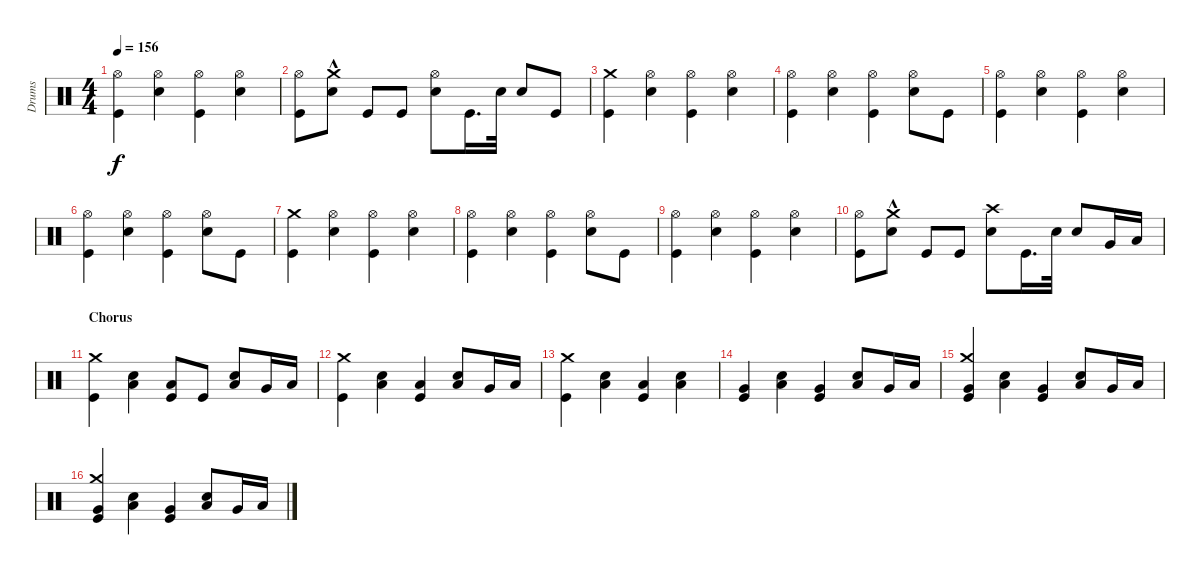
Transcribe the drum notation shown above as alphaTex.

\track ("Drums" "Drums") {instrument percussion}
\staff {score}
\articulation defaults
\ts (4 4)
\tempo 156
\clef neutral
\ks c
("Kick (hit)" "Hi-Hat (open)").4{dy f} ("Electric Snare (hit)" "Hi-Hat (open)").4 ("Kick (hit)" "Hi-Hat (open)").4 ("Electric Snare (hit)" "Hi-Hat (open)").4 |
("Kick (hit)" "Hi-Hat (open)").8 ("Electric Snare (hit)" "Crash medium (hit)"{hac}).8 "Kick (hit)".8 "Kick (hit)".8 ("Hi-Hat (open)" "Electric Snare (hit)").8 "Kick (hit)".16{d} "Electric Snare (hit)".32 "Electric Snare (hit)".8 "Kick (hit)".8 |
("Kick (hit)" "Crash medium (hit)").4 ("Hi-Hat (open)" "Electric Snare (hit)").4 ("Hi-Hat (open)" "Kick (hit)").4 ("Hi-Hat (open)" "Electric Snare (hit)").4 |
("Kick (hit)" "Hi-Hat (open)").4 ("Electric Snare (hit)" "Hi-Hat (open)").4 ("Kick (hit)" "Hi-Hat (open)").4 ("Electric Snare (hit)" "Hi-Hat (open)").8 "Kick (hit)".8 |
("Kick (hit)" "Hi-Hat (open)").4 ("Electric Snare (hit)" "Hi-Hat (open)").4 ("Kick (hit)" "Hi-Hat (open)").4 ("Electric Snare (hit)" "Hi-Hat (open)").4 |
("Kick (hit)" "Hi-Hat (open)").4 ("Electric Snare (hit)" "Hi-Hat (open)").4 ("Kick (hit)" "Hi-Hat (open)").4 ("Electric Snare (hit)" "Hi-Hat (open)").8 "Kick (hit)".8 |
("Kick (hit)" "Crash medium (hit)").4 ("Electric Snare (hit)" "Hi-Hat (open)").4 ("Kick (hit)" "Hi-Hat (open)").4 ("Electric Snare (hit)" "Hi-Hat (open)").4 |
("Kick (hit)" "Hi-Hat (open)").4 ("Electric Snare (hit)" "Hi-Hat (open)").4 ("Kick (hit)" "Hi-Hat (open)").4 ("Electric Snare (hit)" "Hi-Hat (open)").8 "Kick (hit)".8 |
("Kick (hit)" "Hi-Hat (open)").4 ("Electric Snare (hit)" "Hi-Hat (open)").4 ("Kick (hit)" "Hi-Hat (open)").4 ("Electric Snare (hit)" "Hi-Hat (open)").4 |
("Kick (hit)" "Hi-Hat (open)").8 ("Electric Snare (hit)" "Crash medium (hit)"{hac}).8 "Kick (hit)".8 "Kick (hit)".8 ("Crash high (hit)" "Electric Snare (hit)").8 "Kick (hit)".16{d} "Electric Snare (hit)".32 "Electric Snare (hit)".8 "Very Low Tom (hit)".16 "Low Floor Tom (hit)".16 |
\section ("" "Chorus")
("Kick (hit)" "Crash medium (hit)").4 ("Low Floor Tom (hit)" "Electric Snare (hit)").4 ("Low Floor Tom (hit)" "Kick (hit)").8 "Kick (hit)".8 ("Low Tom (hit)" "Electric Snare (hit)").8 "Very Low Tom (hit)".16 "Low Floor Tom (hit)".16 |
("Kick (hit)" "Crash medium (hit)").4 ("Low Floor Tom (hit)" "Electric Snare (hit)").4 ("Low Floor Tom (hit)" "Kick (hit)").4 ("Low Tom (hit)" "Electric Snare (hit)").8 "Very Low Tom (hit)".16 "Low Floor Tom (hit)".16 |
("Crash medium (hit)" "Kick (hit)").4 ("Low Floor Tom (hit)" "Electric Snare (hit)").4 ("Kick (hit)" "Low Floor Tom (hit)").4 ("Electric Snare (hit)" "Low Floor Tom (hit)").4 |
("Kick (hit)" "Very Low Tom (hit)").4 ("Electric Snare (hit)" "Low Floor Tom (hit)").4 ("Kick (hit)" "Very Low Tom (hit)").4 ("Low Tom (hit)" "Electric Snare (hit)").8 "Very Low Tom (hit)".16 "Low Floor Tom (hit)".16 |
("Crash medium (hit)" "Kick (hit)" "Very Low Tom (hit)").4 ("Electric Snare (hit)" "Low Tom (hit)").4 ("Kick (hit)" "Very Low Tom (hit)").4 ("Low Tom (hit)" "Electric Snare (hit)").8 "Very Low Tom (hit)".16 "Low Floor Tom (hit)".16 |
("Crash medium (hit)" "Kick (hit)" "Very Low Tom (hit)").4 ("Electric Snare (hit)" "Low Tom (hit)").4 ("Kick (hit)" "Very Low Tom (hit)").4 ("Low Tom (hit)" "Electric Snare (hit)").8 "Very Low Tom (hit)".16 "Low Floor Tom (hit)".16
